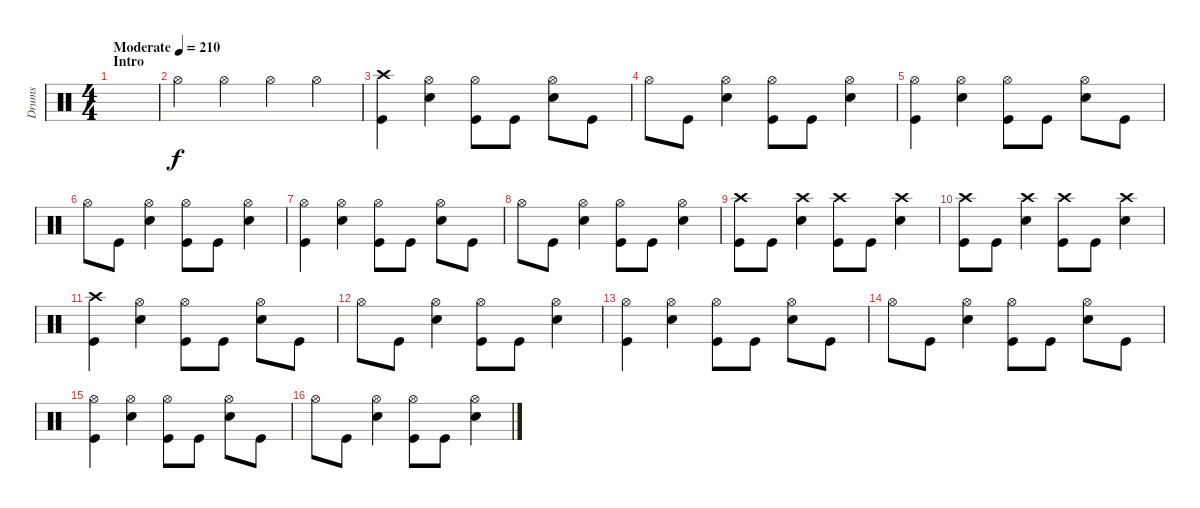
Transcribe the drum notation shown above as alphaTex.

\track ("Drums" "Drums") {instrument percussion}
\staff {score}
\articulation defaults
\ts (4 4)
\section ("" "Intro")
\tempo (210 "Moderate")
\clef neutral
\ks c
|
"Hi-Hat (open)".4 "Hi-Hat (open)".4 "Hi-Hat (open)".4 "Hi-Hat (open)".4 |
("Crash high (hit)" "Kick (hit)").4 ("Hi-Hat (open)" "Snare (hit) 2").4 ("Hi-Hat (open)" "Kick (hit)").8 "Kick (hit)".8 ("Hi-Hat (open)" "Snare (hit) 2").8 "Kick (hit)".8 |
"Hi-Hat (open)".8 "Kick (hit)".8 ("Hi-Hat (open)" "Snare (hit) 2").4 ("Hi-Hat (open)" "Kick (hit)").8 "Kick (hit)".8 ("Hi-Hat (open)" "Snare (hit) 2").4 |
("Hi-Hat (open)" "Kick (hit)").4 ("Hi-Hat (open)" "Snare (hit) 2").4 ("Hi-Hat (open)" "Kick (hit)").8 "Kick (hit)".8 ("Hi-Hat (open)" "Snare (hit) 2").8 "Kick (hit)".8 |
"Hi-Hat (open)".8 "Kick (hit)".8 ("Hi-Hat (open)" "Snare (hit) 2").4 ("Hi-Hat (open)" "Kick (hit)").8 "Kick (hit)".8 ("Hi-Hat (open)" "Snare (hit) 2").4 |
("Hi-Hat (open)" "Kick (hit)").4 ("Hi-Hat (open)" "Snare (hit) 2").4 ("Hi-Hat (open)" "Kick (hit)").8 "Kick (hit)".8 ("Hi-Hat (open)" "Snare (hit) 2").8 "Kick (hit)".8 |
"Hi-Hat (open)".8 "Kick (hit)".8 ("Hi-Hat (open)" "Snare (hit) 2").4 ("Hi-Hat (open)" "Kick (hit)").8 "Kick (hit)".8 ("Hi-Hat (open)" "Snare (hit) 2").4 |
("Crash high (hit)" "Kick (hit)").8 "Kick (hit)".8 ("Crash high (hit)" "Snare (hit) 2").4 ("Crash high (hit)" "Kick (hit)").8 "Kick (hit)".8 ("Crash high (hit)" "Snare (hit) 2").4 |
("Crash high (hit)" "Kick (hit)").8 "Kick (hit)".8 ("Crash high (hit)" "Snare (hit) 2").4 ("Crash high (hit)" "Kick (hit)").8 "Kick (hit)".8 ("Crash high (hit)" "Snare (hit) 2").4 |
("Crash high (hit)" "Kick (hit)").4 ("Hi-Hat (open)" "Snare (hit) 2").4 ("Hi-Hat (open)" "Kick (hit)").8 "Kick (hit)".8 ("Hi-Hat (open)" "Snare (hit) 2").8 "Kick (hit)".8 |
"Hi-Hat (open)".8 "Kick (hit)".8 ("Hi-Hat (open)" "Snare (hit) 2").4 ("Hi-Hat (open)" "Kick (hit)").8 "Kick (hit)".8 ("Hi-Hat (open)" "Snare (hit) 2").4 |
("Hi-Hat (open)" "Kick (hit)").4 ("Hi-Hat (open)" "Snare (hit) 2").4 ("Hi-Hat (open)" "Kick (hit)").8 "Kick (hit)".8 ("Hi-Hat (open)" "Snare (hit) 2").8 "Kick (hit)".8 |
"Hi-Hat (open)".8 "Kick (hit)".8 ("Hi-Hat (open)" "Snare (hit) 2").4 ("Hi-Hat (open)" "Kick (hit)").8 "Kick (hit)".8 ("Hi-Hat (open)" "Snare (hit) 2").8 "Kick (hit)".8 |
("Hi-Hat (open)" "Kick (hit)").4 ("Hi-Hat (open)" "Snare (hit) 2").4 ("Hi-Hat (open)" "Kick (hit)").8 "Kick (hit)".8 ("Hi-Hat (open)" "Snare (hit) 2").8 "Kick (hit)".8 |
"Hi-Hat (open)".8 "Kick (hit)".8 ("Hi-Hat (open)" "Snare (hit) 2").4 ("Hi-Hat (open)" "Kick (hit)").8 "Kick (hit)".8 ("Hi-Hat (open)" "Snare (hit) 2").4
